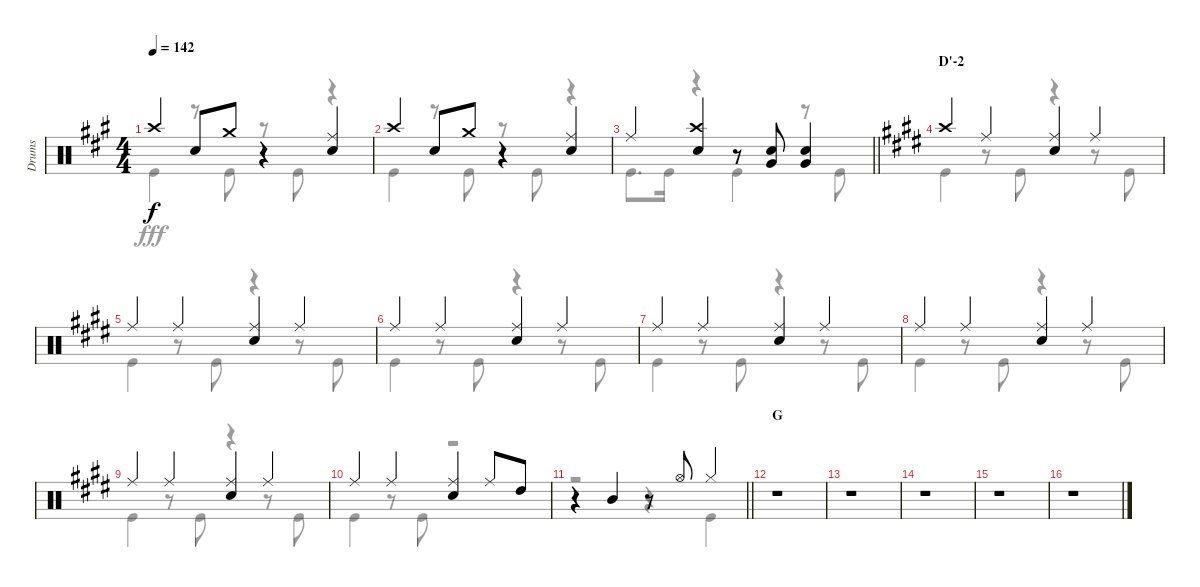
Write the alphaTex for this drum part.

\track ("Drums" "Drums") {instrument percussion}
\staff {score}
\articulation defaults
\voice
\ts (4 4)
\tempo 142
\clef neutral
\ks a "Crash high (hit)".4{dy f} "Snare (hit) 2".8 "Crash medium (hit)".8
r.4 ("Ride (middle)" "Snare (hit) 2").4 |
"Crash high (hit)".4 "Snare (hit) 2".8 "Crash medium (hit)".8 r.4 ("Ride (middle)" "Snare (hit) 2").4 |
\barLineRight lightlight "Ride (middle)".4
("Crash high (hit)" "Snare (hit) 2").4 r.8 ("Snare (hit) 2" "Very Low Tom (hit)").8 ("Snare (hit) 2" "Very Low Tom (hit)").4 |
\section ("" "D'-2")
\ks e "Crash high (hit)".4 "Ride (middle)".4
("Ride (middle)" "Snare (hit) 2").4 "Ride (middle)".4 |
"Ride (middle)".4 "Ride (middle)".4 ("Ride (middle)" "Snare (hit) 2").4 "Ride (middle)".4 |
"Ride (middle)".4 "Ride (middle)".4 ("Ride (middle)" "Snare (hit) 2").4 "Ride (middle)".4 |
"Ride (middle)".4 "Ride (middle)".4 ("Ride (middle)" "Snare (hit) 2").4 "Ride (middle)".4 |
"Ride (middle)".4 "Ride (middle)".4 ("Ride (middle)" "Snare (hit) 2").4 "Ride (middle)".4 |
"Ride (middle)".4 "Ride (middle)".4 ("Ride (middle)" "Snare (hit) 2").4 "Ride (middle)".4 |
"Ride (middle)".4 "Ride (middle)".4 ("Ride (middle)" "Snare (hit) 2").4 "Ride (middle)".8 "High Tom (hit)".8 |
\barLineRight lightlight
r.4 "Mid Tom (hit)".4 r.8 "Hi-Hat (open)".8 "Hi-Hat (closed)".4 |
\section ("" "G")
r.1 |
r.1 |
r.1 |
r.1 |
r.1
\voice
\clef neutral
\ottava regular
\simile none
\ks a "Kick (hit)".4{dy fff}
r.8 "Kick (hit)".8 r.8 "Kick (hit)".8 r.4 |
"Kick (hit)".4 r.8 "Kick (hit)".8 r.8 "Kick (hit)".8 r.4 |
\barLineRight lightlight "Kick (hit)".8{d} "Kick (hit)".16
r.4 "Kick (hit)".4 r.8 "Kick (hit)".8 |
\ks e "Kick (hit)".4
r.8 "Kick (hit)".8 r.4 r.8 "Kick (hit)".8 |
"Kick (hit)".4 r.8 "Kick (hit)".8 r.4 r.8 "Kick (hit)".8 |
"Kick (hit)".4 r.8 "Kick (hit)".8 r.4 r.8 "Kick (hit)".8 |
"Kick (hit)".4 r.8 "Kick (hit)".8 r.4 r.8 "Kick (hit)".8 |
"Kick (hit)".4 r.8 "Kick (hit)".8 r.4 r.8 "Kick (hit)".8 |
"Kick (hit)".4 r.8 "Kick (hit)".8 r.4 r.8 "Kick (hit)".8 |
"Kick (hit)".4 r.8 "Kick (hit)".8 r.2 |
\barLineRight lightlight
r.2 r.4 "Kick (hit)".4 |
r.1 |
r.1 |
r.1 |
r.1 |
r.1
